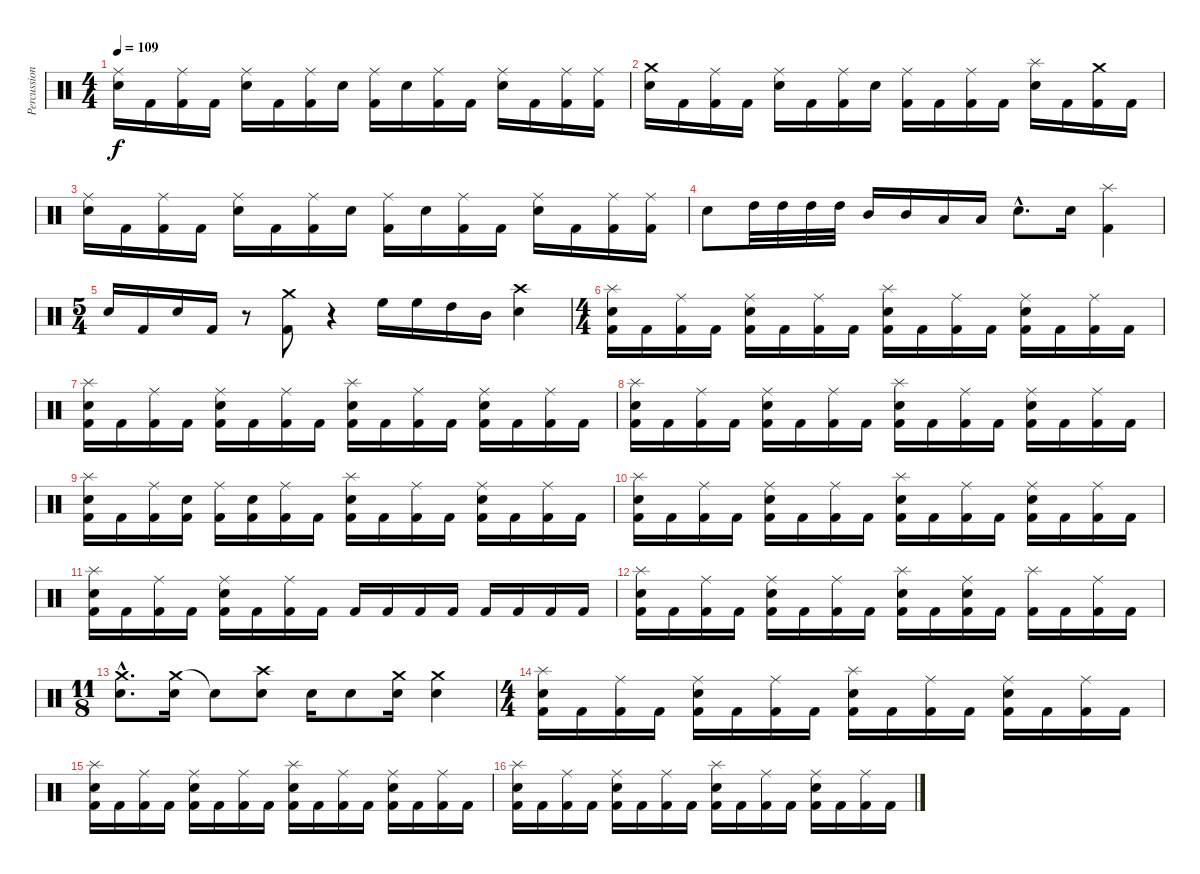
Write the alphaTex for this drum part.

\track ("Percussions" "Percussion") {instrument percussion}
\staff {score}
\articulation defaults
\ts (4 4)
\tempo 109
\clef neutral
\ks c
("Ride (middle)" "Electric Snare (hit)").16{dy f} "Kick (hit) 2".16 ("Ride (middle)" "Kick (hit) 2").16 "Kick (hit) 2".16 ("Ride (middle)" "Electric Snare (hit)").16 "Kick (hit) 2".16 ("Ride (middle)" "Kick (hit) 2").16 "Electric Snare (hit)".16 ("Ride (middle)" "Kick (hit) 2").16 "Electric Snare (hit)".16 ("Ride (middle)" "Kick (hit) 2").16 "Kick (hit) 2".16 ("Ride (middle)" "Electric Snare (hit)").16 "Kick (hit) 2".16 ("Ride (middle)" "Kick (hit) 2").16 ("Ride (middle)" "Kick (hit) 2").16 |
("Crash medium (hit)" "Electric Snare (hit)").16 "Kick (hit) 2".16 ("Ride (middle)" "Kick (hit) 2").16 "Kick (hit) 2".16 ("Ride (middle)" "Electric Snare (hit)").16 "Kick (hit) 2".16 ("Ride (middle)" "Kick (hit) 2").16 "Electric Snare (hit)".16 ("Ride (middle)" "Kick (hit) 2").16 "Kick (hit) 2".16 ("Ride (middle)" "Kick (hit) 2").16 "Kick (hit) 2".16 ("Splash (hit)" "Electric Snare (hit)").16 "Kick (hit) 2".16 ("Crash medium (hit)" "Kick (hit) 2").16 "Kick (hit) 2".16 |
("Ride (middle)" "Electric Snare (hit)").16 "Kick (hit) 2".16 ("Ride (middle)" "Kick (hit) 2").16 "Kick (hit) 2".16 ("Ride (middle)" "Electric Snare (hit)").16 "Kick (hit) 2".16 ("Ride (middle)" "Kick (hit) 2").16 "Electric Snare (hit)".16 ("Ride (middle)" "Kick (hit) 2").16 "Electric Snare (hit)".16 ("Ride (middle)" "Kick (hit) 2").16 "Kick (hit) 2".16 ("Ride (middle)" "Electric Snare (hit)").16 "Kick (hit) 2".16 ("Ride (middle)" "Kick (hit) 2").16 ("Ride (middle)" "Kick (hit) 2").16 |
"Electric Snare (hit)".8 "High Tom (hit)".32 "High Tom (hit)".32 "High Tom (hit)".32 "High Tom (hit)".32 "Mid Tom (hit)".16 "Mid Tom (hit)".16 "Low Tom (hit)".16 "Low Tom (hit)".16 "Electric Snare (hit)"{hac}.8{d} "Electric Snare (hit)".16 ("Splash (hit)" "Kick (hit) 2").4 |
\ts (5 4)
"Electric Snare (hit)".16 "Kick (hit) 2".16 "Electric Snare (hit)".16 "Kick (hit) 2".16 r.8 ("Crash medium (hit)" "Kick (hit) 2").8 r.4 "High Floor Tom (hit)".16 "High Floor Tom (hit)".16 "High Tom (hit)".16 "Mid Tom (hit)".16 ("Crash high (hit)" "Electric Snare (hit)").4 |
\ts (4 4)
("Splash (hit)" "Electric Snare (hit)" "Kick (hit) 2").16 "Kick (hit) 2".16 ("Ride (middle)" "Kick (hit) 2").16 "Kick (hit) 2".16 ("Ride (middle)" "Electric Snare (hit)" "Kick (hit) 2").16 "Kick (hit) 2".16 ("Ride (middle)" "Kick (hit) 2").16 "Kick (hit) 2".16 ("Splash (hit)" "Electric Snare (hit)" "Kick (hit) 2").16 "Kick (hit) 2".16 ("Ride (middle)" "Kick (hit) 2").16 "Kick (hit) 2".16 ("Ride (middle)" "Electric Snare (hit)" "Kick (hit) 2").16 "Kick (hit) 2".16 ("Ride (middle)" "Kick (hit) 2").16 "Kick (hit) 2".16 |
("Splash (hit)" "Electric Snare (hit)" "Kick (hit) 2").16 "Kick (hit) 2".16 ("Ride (middle)" "Kick (hit) 2").16 "Kick (hit) 2".16 ("Ride (middle)" "Electric Snare (hit)" "Kick (hit) 2").16 "Kick (hit) 2".16 ("Ride (middle)" "Kick (hit) 2").16 "Kick (hit) 2".16 ("Splash (hit)" "Electric Snare (hit)" "Kick (hit) 2").16 "Kick (hit) 2".16 ("Ride (middle)" "Kick (hit) 2").16 "Kick (hit) 2".16 ("Ride (middle)" "Electric Snare (hit)" "Kick (hit) 2").16 "Kick (hit) 2".16 ("Ride (middle)" "Kick (hit) 2").16 "Kick (hit) 2".16 |
("Splash (hit)" "Electric Snare (hit)" "Kick (hit) 2").16 "Kick (hit) 2".16 ("Ride (middle)" "Kick (hit) 2").16 "Kick (hit) 2".16 ("Ride (middle)" "Electric Snare (hit)" "Kick (hit) 2").16 "Kick (hit) 2".16 ("Ride (middle)" "Kick (hit) 2").16 "Kick (hit) 2".16 ("Splash (hit)" "Electric Snare (hit)" "Kick (hit) 2").16 "Kick (hit) 2".16 ("Ride (middle)" "Kick (hit) 2").16 "Kick (hit) 2".16 ("Ride (middle)" "Electric Snare (hit)" "Kick (hit) 2").16 "Kick (hit) 2".16 ("Ride (middle)" "Kick (hit) 2").16 "Kick (hit) 2".16 |
("Splash (hit)" "Electric Snare (hit)" "Kick (hit) 2").16 "Kick (hit) 2".16 ("Ride (middle)" "Kick (hit) 2").16 ("Electric Snare (hit)" "Kick (hit) 2").16 ("Ride (middle)" "Kick (hit) 2").16 ("Electric Snare (hit)" "Kick (hit) 2").16 ("Ride (middle)" "Kick (hit) 2").16 "Kick (hit) 2".16 ("Splash (hit)" "Electric Snare (hit)" "Kick (hit) 2").16 "Kick (hit) 2".16 ("Ride (middle)" "Kick (hit) 2").16 "Kick (hit) 2".16 ("Ride (middle)" "Electric Snare (hit)" "Kick (hit) 2").16 "Kick (hit) 2".16 ("Ride (middle)" "Kick (hit) 2").16 "Kick (hit) 2".16 |
("Splash (hit)" "Electric Snare (hit)" "Kick (hit) 2").16 "Kick (hit) 2".16 ("Ride (middle)" "Kick (hit) 2").16 "Kick (hit) 2".16 ("Ride (middle)" "Electric Snare (hit)" "Kick (hit) 2").16 "Kick (hit) 2".16 ("Ride (middle)" "Kick (hit) 2").16 "Kick (hit) 2".16 ("Splash (hit)" "Electric Snare (hit)" "Kick (hit) 2").16 "Kick (hit) 2".16 ("Ride (middle)" "Kick (hit) 2").16 "Kick (hit) 2".16 ("Ride (middle)" "Electric Snare (hit)" "Kick (hit) 2").16 "Kick (hit) 2".16 ("Ride (middle)" "Kick (hit) 2").16 "Kick (hit) 2".16 |
("Splash (hit)" "Electric Snare (hit)" "Kick (hit) 2").16 "Kick (hit) 2".16 ("Ride (middle)" "Kick (hit) 2").16 "Kick (hit) 2".16 ("Ride (middle)" "Electric Snare (hit)" "Kick (hit) 2").16 "Kick (hit) 2".16 ("Ride (middle)" "Kick (hit) 2").16 "Kick (hit) 2".16 "Kick (hit) 2".16 "Kick (hit) 2".16 "Kick (hit) 2".16 "Kick (hit) 2".16 "Kick (hit) 2".16 "Kick (hit) 2".16 "Kick (hit) 2".16 "Kick (hit) 2".16 |
("Splash (hit)" "Electric Snare (hit)" "Kick (hit) 2").16 "Kick (hit) 2".16 ("Ride (middle)" "Kick (hit) 2").16 "Kick (hit) 2".16 ("Ride (middle)" "Electric Snare (hit)" "Kick (hit) 2").16 "Kick (hit) 2".16 ("Ride (middle)" "Kick (hit) 2").16 "Kick (hit) 2".16 ("Splash (hit)" "Electric Snare (hit)" "Kick (hit) 2").16 "Kick (hit) 2".16 ("Ride (middle)" "Electric Snare (hit)" "Kick (hit) 2").16 "Kick (hit) 2".16 ("Splash (hit)" "Kick (hit) 2").16 "Kick (hit) 2".16 ("Ride (middle)" "Kick (hit) 2").16 "Kick (hit) 2".16 |
\ts (11 8)
("Crash medium (hit)"{hac} "Electric Snare (hit)"{hac}).8{d} ("Crash medium (hit)" "Electric Snare (hit)").16 "Snare (hit)"{t}.8 ("Crash high (hit)" "Electric Snare (hit)").8 "Electric Snare (hit)".16 "Electric Snare (hit)".8 ("Crash medium (hit)" "Electric Snare (hit)").16 ("Crash medium (hit)" "Electric Snare (hit)").4 |
\ts (4 4)
("Splash (hit)" "Electric Snare (hit)" "Kick (hit) 2").16 "Kick (hit) 2".16 ("Ride (middle)" "Kick (hit) 2").16 "Kick (hit) 2".16 ("Ride (middle)" "Electric Snare (hit)" "Kick (hit) 2").16 "Kick (hit) 2".16 ("Ride (middle)" "Kick (hit) 2").16 "Kick (hit) 2".16 ("Splash (hit)" "Electric Snare (hit)" "Kick (hit) 2").16 "Kick (hit) 2".16 ("Ride (middle)" "Kick (hit) 2").16 "Kick (hit) 2".16 ("Ride (middle)" "Electric Snare (hit)" "Kick (hit) 2").16 "Kick (hit) 2".16 ("Ride (middle)" "Kick (hit) 2").16 "Kick (hit) 2".16 |
("Splash (hit)" "Electric Snare (hit)" "Kick (hit) 2").16 "Kick (hit) 2".16 ("Ride (middle)" "Kick (hit) 2").16 "Kick (hit) 2".16 ("Ride (middle)" "Electric Snare (hit)" "Kick (hit) 2").16 "Kick (hit) 2".16 ("Ride (middle)" "Kick (hit) 2").16 "Kick (hit) 2".16 ("Splash (hit)" "Electric Snare (hit)" "Kick (hit) 2").16 "Kick (hit) 2".16 ("Ride (middle)" "Kick (hit) 2").16 "Kick (hit) 2".16 ("Ride (middle)" "Electric Snare (hit)" "Kick (hit) 2").16 "Kick (hit) 2".16 ("Ride (middle)" "Kick (hit) 2").16 "Kick (hit) 2".16 |
("Splash (hit)" "Electric Snare (hit)" "Kick (hit) 2").16 "Kick (hit) 2".16 ("Ride (middle)" "Kick (hit) 2").16 "Kick (hit) 2".16 ("Ride (middle)" "Electric Snare (hit)" "Kick (hit) 2").16 "Kick (hit) 2".16 ("Ride (middle)" "Kick (hit) 2").16 "Kick (hit) 2".16 ("Splash (hit)" "Electric Snare (hit)" "Kick (hit) 2").16 "Kick (hit) 2".16 ("Ride (middle)" "Kick (hit) 2").16 "Kick (hit) 2".16 ("Ride (middle)" "Electric Snare (hit)" "Kick (hit) 2").16 "Kick (hit) 2".16 ("Ride (middle)" "Kick (hit) 2").16 "Kick (hit) 2".16
